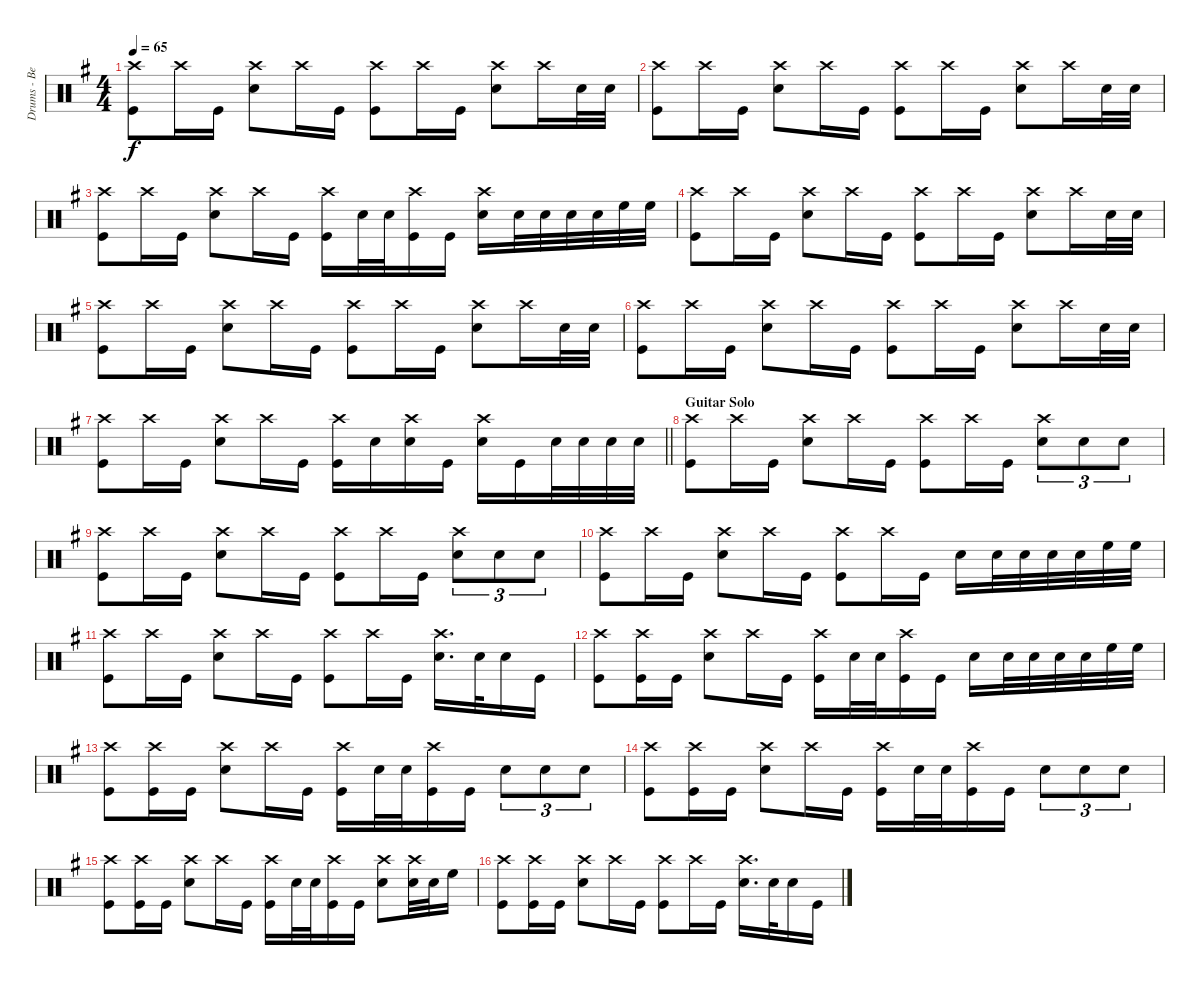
\track ("Drums - Ben Johnston" "Drums - Be") {instrument percussion}
\staff {score}
\articulation defaults
\ts (4 4)
\tempo 65
\clef neutral
\ks g
("Crash high (hit)" "Kick (hit)").8{dy f} "Crash high (hit)".16 "Kick (hit)".16 ("Crash high (hit)" "Snare (hit) 2").8 "Crash high (hit)".16 "Kick (hit)".16 ("Crash high (hit)" "Kick (hit)").8 "Crash high (hit)".16 "Kick (hit)".16 ("Crash high (hit)" "Snare (hit) 2").8 "Crash high (hit)".16 "Snare (hit) 2".32 "Snare (hit) 2".32 |
("Crash high (hit)" "Kick (hit)").8 "Crash high (hit)".16 "Kick (hit)".16 ("Crash high (hit)" "Snare (hit) 2").8 "Crash high (hit)".16 "Kick (hit)".16 ("Crash high (hit)" "Kick (hit)").8 "Crash high (hit)".16 "Kick (hit)".16 ("Crash high (hit)" "Snare (hit) 2").8 "Crash high (hit)".16 "Snare (hit) 2".32 "Snare (hit) 2".32 |
("Crash high (hit)" "Kick (hit)").8 "Crash high (hit)".16 "Kick (hit)".16 ("Crash high (hit)" "Snare (hit) 2").8 "Crash high (hit)".16 "Kick (hit)".16 ("Crash high (hit)" "Kick (hit)").16 "Snare (hit) 2".32 "Snare (hit) 2".32 ("Crash high (hit)" "Kick (hit)").16 "Kick (hit)".16 ("Crash high (hit)" "Snare (hit) 2").16 "Snare (hit) 2".32 "Snare (hit) 2".32 "Snare (hit) 2".32 "Snare (hit) 2".32 "High Floor Tom (hit)".32 "High Floor Tom (hit)".32 |
("Crash high (hit)" "Kick (hit)").8 "Crash high (hit)".16 "Kick (hit)".16 ("Crash high (hit)" "Snare (hit) 2").8 "Crash high (hit)".16 "Kick (hit)".16 ("Crash high (hit)" "Kick (hit)").8 "Crash high (hit)".16 "Kick (hit)".16 ("Crash high (hit)" "Snare (hit) 2").8 "Crash high (hit)".16 "Snare (hit) 2".32 "Snare (hit) 2".32 |
("Crash high (hit)" "Kick (hit)").8 "Crash high (hit)".16 "Kick (hit)".16 ("Crash high (hit)" "Snare (hit) 2").8 "Crash high (hit)".16 "Kick (hit)".16 ("Crash high (hit)" "Kick (hit)").8 "Crash high (hit)".16 "Kick (hit)".16 ("Crash high (hit)" "Snare (hit) 2").8 "Crash high (hit)".16 "Snare (hit) 2".32 "Snare (hit) 2".32 |
("Crash high (hit)" "Kick (hit)").8 "Crash high (hit)".16 "Kick (hit)".16 ("Crash high (hit)" "Snare (hit) 2").8 "Crash high (hit)".16 "Kick (hit)".16 ("Crash high (hit)" "Kick (hit)").8 "Crash high (hit)".16 "Kick (hit)".16 ("Crash high (hit)" "Snare (hit) 2").8 "Crash high (hit)".16 "Snare (hit) 2".32 "Snare (hit) 2".32 |
\barLineRight lightlight
("Crash high (hit)" "Kick (hit)").8 "Crash high (hit)".16 "Kick (hit)".16 ("Crash high (hit)" "Snare (hit) 2").8 "Crash high (hit)".16 "Kick (hit)".16 ("Crash high (hit)" "Kick (hit)").16 "Snare (hit) 2".16 ("Crash high (hit)" "Snare (hit) 2").16 "Kick (hit)".16 ("Crash high (hit)" "Snare (hit) 2").16 "Kick (hit)".16 "Snare (hit) 2".32 "Snare (hit) 2".32 "Snare (hit) 2".32 "Snare (hit) 2".32 |
\section ("" "Guitar Solo")
("Crash high (hit)" "Kick (hit)").8 "Crash high (hit)".16 "Kick (hit)".16 ("Crash high (hit)" "Snare (hit) 2").8 "Crash high (hit)".16 "Kick (hit)".16 ("Crash high (hit)" "Kick (hit)").8 "Crash high (hit)".16 "Kick (hit)".16 ("Crash high (hit)" "Snare (hit) 2").8{tu (3 2)} "Snare (hit) 2".8{tu (3 2)} "Snare (hit) 2".8{tu (3 2)} |
("Crash high (hit)" "Kick (hit)").8 "Crash high (hit)".16 "Kick (hit)".16 ("Crash high (hit)" "Snare (hit) 2").8 "Crash high (hit)".16 "Kick (hit)".16 ("Crash high (hit)" "Kick (hit)").8 "Crash high (hit)".16 "Kick (hit)".16 ("Crash high (hit)" "Snare (hit) 2").8{tu (3 2)} "Snare (hit) 2".8{tu (3 2)} "Snare (hit) 2".8{tu (3 2)} |
("Crash high (hit)" "Kick (hit)").8 "Crash high (hit)".16 "Kick (hit)".16 ("Crash high (hit)" "Snare (hit) 2").8 "Crash high (hit)".16 "Kick (hit)".16 ("Crash high (hit)" "Kick (hit)").8 "Crash high (hit)".16 "Kick (hit)".16 "Snare (hit) 2".16 "Snare (hit) 2".32 "Snare (hit) 2".32 "Snare (hit) 2".32 "Snare (hit) 2".32 "High Floor Tom (hit)".32 "High Floor Tom (hit)".32 |
("Crash high (hit)" "Kick (hit)").8 "Crash high (hit)".16 "Kick (hit)".16 ("Crash high (hit)" "Snare (hit) 2").8 "Crash high (hit)".16 "Kick (hit)".16 ("Crash high (hit)" "Kick (hit)").8 "Crash high (hit)".16 "Kick (hit)".16 ("Crash high (hit)" "Snare (hit) 2").16{d} "Snare (hit) 2".32 "Snare (hit) 2".16 "Kick (hit)".16 |
("Crash high (hit)" "Kick (hit)").8 ("Crash high (hit)" "Kick (hit)").16 "Kick (hit)".16 ("Crash high (hit)" "Snare (hit) 2").8 "Crash high (hit)".16 "Kick (hit)".16 ("Crash high (hit)" "Kick (hit)").16 "Snare (hit) 2".32 "Snare (hit) 2".32 ("Crash high (hit)" "Kick (hit)").16 "Kick (hit)".16 "Snare (hit) 2".16 "Snare (hit) 2".32 "Snare (hit) 2".32 "Snare (hit) 2".32 "Snare (hit) 2".32 "High Floor Tom (hit)".32 "High Floor Tom (hit)".32 |
("Crash high (hit)" "Kick (hit)").8 ("Crash high (hit)" "Kick (hit)").16 "Kick (hit)".16 ("Crash high (hit)" "Snare (hit) 2").8 "Crash high (hit)".16 "Kick (hit)".16 ("Crash high (hit)" "Kick (hit)").16 "Snare (hit) 2".32 "Snare (hit) 2".32 ("Crash high (hit)" "Kick (hit)").16 "Kick (hit)".16 "Snare (hit) 2".8{tu (3 2)} "Snare (hit) 2".8{tu (3 2)} "Snare (hit) 2".8{tu (3 2)} |
("Crash high (hit)" "Kick (hit)").8 ("Crash high (hit)" "Kick (hit)").16 "Kick (hit)".16 ("Crash high (hit)" "Snare (hit) 2").8 "Crash high (hit)".16 "Kick (hit)".16 ("Crash high (hit)" "Kick (hit)").16 "Snare (hit) 2".32 "Snare (hit) 2".32 ("Crash high (hit)" "Kick (hit)").16 "Kick (hit)".16 "Snare (hit) 2".8{tu (3 2)} "Snare (hit) 2".8{tu (3 2)} "Snare (hit) 2".8{tu (3 2)} |
("Crash high (hit)" "Kick (hit)").8 ("Crash high (hit)" "Kick (hit)").16 "Kick (hit)".16 ("Crash high (hit)" "Snare (hit) 2").8 "Crash high (hit)".16 "Kick (hit)".16 ("Crash high (hit)" "Kick (hit)").16 "Snare (hit) 2".32 "Snare (hit) 2".32 ("Crash high (hit)" "Kick (hit)").16 "Kick (hit)".16 ("Crash high (hit)" "Snare (hit) 2").8 ("Crash high (hit)" "Snare (hit) 2").32 "Snare (hit) 2".32 "High Floor Tom (hit)".16 |
("Crash high (hit)" "Kick (hit)").8 ("Crash high (hit)" "Kick (hit)").16 "Kick (hit)".16 ("Crash high (hit)" "Snare (hit) 2").8 "Crash high (hit)".16 "Kick (hit)".16 ("Crash high (hit)" "Kick (hit)").8 "Crash high (hit)".16 "Kick (hit)".16 ("Crash high (hit)" "Snare (hit) 2").16{d} "Snare (hit) 2".32 "Snare (hit) 2".16 "Kick (hit)".16
